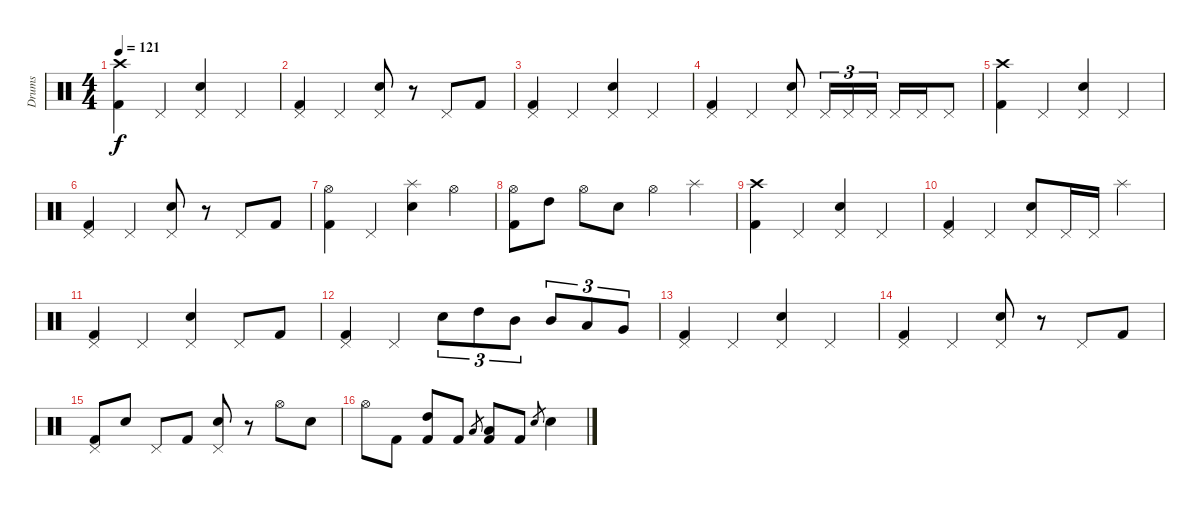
\track ("Drums" "Drums") {instrument percussion}
\staff {score}
\articulation defaults
\ts (4 4)
\tempo 121
\clef neutral
\ks c
("Crash high (hit)" "Kick (hit) 2").4{dy f} "Pedal Hi-Hat (hit)".4 ("Pedal Hi-Hat (hit)" "Electric Snare (hit)").4 "Pedal Hi-Hat (hit)".4 |
("Pedal Hi-Hat (hit)" "Kick (hit) 2").4 "Pedal Hi-Hat (hit)".4 ("Pedal Hi-Hat (hit)" "Electric Snare (hit)").8 r.8 "Pedal Hi-Hat (hit)".8 "Kick (hit) 2".8 |
("Pedal Hi-Hat (hit)" "Kick (hit) 2").4 "Pedal Hi-Hat (hit)".4 ("Pedal Hi-Hat (hit)" "Electric Snare (hit)").4 "Pedal Hi-Hat (hit)".4 |
("Pedal Hi-Hat (hit)" "Kick (hit) 2").4 "Pedal Hi-Hat (hit)".4 ("Pedal Hi-Hat (hit)" "Electric Snare (hit)").8 "Pedal Hi-Hat (hit)".16{tu (3 2)} "Pedal Hi-Hat (hit)".16{tu (3 2)} "Pedal Hi-Hat (hit)".16{tu (3 2)} "Pedal Hi-Hat (hit)".16 "Pedal Hi-Hat (hit)".16 "Pedal Hi-Hat (hit)".8 |
("Crash high (hit)" "Kick (hit) 2").4 "Pedal Hi-Hat (hit)".4 ("Pedal Hi-Hat (hit)" "Electric Snare (hit)").4 "Pedal Hi-Hat (hit)".4 |
("Pedal Hi-Hat (hit)" "Kick (hit) 2").4 "Pedal Hi-Hat (hit)".4 ("Pedal Hi-Hat (hit)" "Electric Snare (hit)").8 r.8 "Pedal Hi-Hat (hit)".8 "Kick (hit) 2".8 |
("Hi-Hat (open)" "Kick (hit) 2").4 "Pedal Hi-Hat (hit)".4 ("Splash (hit)" "Electric Snare (hit)").4 "Hi-Hat (open)".4 |
("Hi-Hat (open)" "Kick (hit) 2").8 "High Tom (hit)".8 "Hi-Hat (open)".8 "Electric Snare (hit)".8 "Hi-Hat (open)".4 "Splash (hit)".4 |
("Crash high (hit)" "Kick (hit) 2").4 "Pedal Hi-Hat (hit)".4 ("Pedal Hi-Hat (hit)" "Electric Snare (hit)").4 "Pedal Hi-Hat (hit)".4 |
("Pedal Hi-Hat (hit)" "Kick (hit) 2").4 "Pedal Hi-Hat (hit)".4 ("Pedal Hi-Hat (hit)" "Electric Snare (hit)").8 "Pedal Hi-Hat (hit)".16 "Pedal Hi-Hat (hit)".16 "Splash (hit)".4 |
("Pedal Hi-Hat (hit)" "Kick (hit) 2").4 "Pedal Hi-Hat (hit)".4 ("Pedal Hi-Hat (hit)" "Electric Snare (hit)").4 "Pedal Hi-Hat (hit)".8 "Kick (hit) 2".8 |
("Pedal Hi-Hat (hit)" "Kick (hit) 2").4 "Pedal Hi-Hat (hit)".4 "Electric Snare (hit)".8{tu (3 2)} "High Tom (hit)".8{tu (3 2)} "Mid Tom (hit)".8{tu (3 2)} "Mid Tom (hit)".8{tu (3 2)} "Low Tom (hit)".8{tu (3 2)} "Very Low Tom (hit)".8{tu (3 2)} |
("Pedal Hi-Hat (hit)" "Kick (hit) 2").4 "Pedal Hi-Hat (hit)".4 ("Pedal Hi-Hat (hit)" "Electric Snare (hit)").4 "Pedal Hi-Hat (hit)".4 |
("Pedal Hi-Hat (hit)" "Kick (hit) 2").4 "Pedal Hi-Hat (hit)".4 ("Pedal Hi-Hat (hit)" "Electric Snare (hit)").8 r.8 "Pedal Hi-Hat (hit)".8 "Kick (hit) 2".8 |
("Pedal Hi-Hat (hit)" "Kick (hit) 2").8 "Electric Snare (hit)".8 "Pedal Hi-Hat (hit)".8 "Kick (hit) 2".8 ("Pedal Hi-Hat (hit)" "Electric Snare (hit)").8 r.8 "Hi-Hat (open)".8 "Electric Snare (hit)".8 |
"Hi-Hat (open)".8 "Kick (hit) 2".8 ("High Tom (hit)" "Kick (hit) 2").8 "Kick (hit) 2".8 "Low Tom (hit)".8{gr} ("Low Tom (hit)" "Kick (hit) 2").8 "Kick (hit) 2".8 "Electric Snare (hit)".8{gr} "Electric Snare (hit)".4
